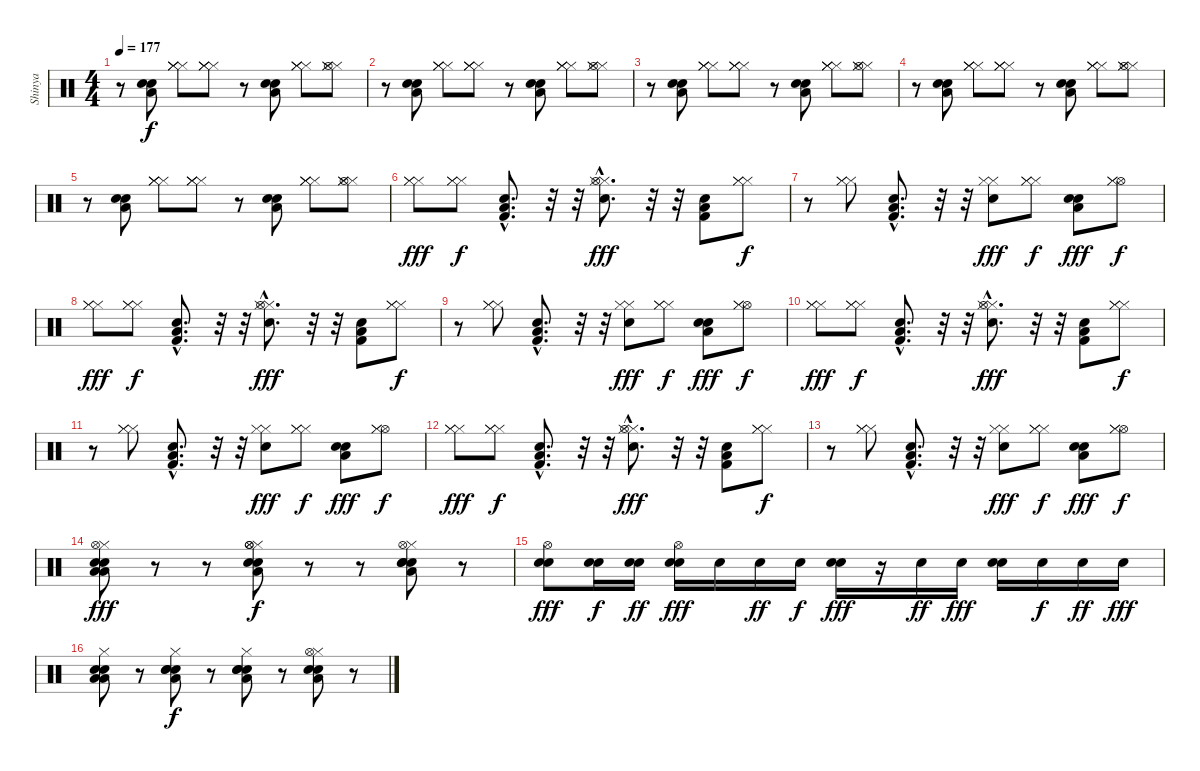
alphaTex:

\track ("Shinya " "Shinya ") {instrument percussion}
\staff {score}
\articulation defaults
\ts (4 4)
\tempo 177
\clef neutral
\ks c
r.8{dy f} ("Electric Snare (hit)" "Low Tom (hit)" "Electric Snare (hit)").8 ("Hi-Hat (closed)" "Hi-Hat (closed)" "Hi-Hat (closed)" "Hi-Hat (closed)").8 ("Hi-Hat (closed)" "Hi-Hat (closed)" "Hi-Hat (closed)" "Hi-Hat (closed)").8 r.8 ("Electric Snare (hit)" "Low Tom (hit)" "Electric Snare (hit)").8 ("Hi-Hat (closed)" "Hi-Hat (closed)" "Hi-Hat (closed)" "Hi-Hat (closed)").8 ("Hi-Hat (closed)" "Hi-Hat (closed)" "Hi-Hat (closed)" "Hi-Hat (open)").8 |
r.8 ("Electric Snare (hit)" "Low Tom (hit)" "Electric Snare (hit)").8 ("Hi-Hat (closed)" "Hi-Hat (closed)" "Hi-Hat (closed)" "Hi-Hat (closed)").8 ("Hi-Hat (closed)" "Hi-Hat (closed)" "Hi-Hat (closed)" "Hi-Hat (closed)").8 r.8 ("Electric Snare (hit)" "Low Tom (hit)" "Electric Snare (hit)").8 ("Hi-Hat (closed)" "Hi-Hat (closed)" "Hi-Hat (closed)" "Hi-Hat (closed)").8 ("Hi-Hat (closed)" "Hi-Hat (closed)" "Hi-Hat (closed)" "Hi-Hat (open)").8 |
r.8 ("Electric Snare (hit)" "Low Tom (hit)" "Electric Snare (hit)").8 ("Hi-Hat (closed)" "Hi-Hat (closed)" "Hi-Hat (closed)" "Hi-Hat (closed)").8 ("Hi-Hat (closed)" "Hi-Hat (closed)" "Hi-Hat (closed)" "Hi-Hat (closed)").8 r.8 ("Electric Snare (hit)" "Low Tom (hit)" "Electric Snare (hit)").8 ("Hi-Hat (closed)" "Hi-Hat (closed)" "Hi-Hat (closed)" "Hi-Hat (closed)").8 ("Hi-Hat (closed)" "Hi-Hat (closed)" "Hi-Hat (closed)" "Hi-Hat (open)").8 |
r.8 ("Electric Snare (hit)" "Low Tom (hit)" "Electric Snare (hit)").8 ("Hi-Hat (closed)" "Hi-Hat (closed)" "Hi-Hat (closed)" "Hi-Hat (closed)").8 ("Hi-Hat (closed)" "Hi-Hat (closed)" "Hi-Hat (closed)" "Hi-Hat (closed)").8 r.8 ("Electric Snare (hit)" "Low Tom (hit)" "Electric Snare (hit)").8 ("Hi-Hat (closed)" "Hi-Hat (closed)" "Hi-Hat (closed)" "Hi-Hat (closed)").8 ("Hi-Hat (closed)" "Hi-Hat (closed)" "Hi-Hat (closed)" "Hi-Hat (open)").8 |
r.8 ("Electric Snare (hit)" "Low Tom (hit)" "Electric Snare (hit)").8 ("Hi-Hat (closed)" "Hi-Hat (closed)" "Hi-Hat (closed)" "Hi-Hat (closed)").8 ("Hi-Hat (closed)" "Hi-Hat (closed)" "Hi-Hat (closed)" "Hi-Hat (closed)").8 r.8 ("Electric Snare (hit)" "Low Tom (hit)" "Electric Snare (hit)").8 ("Hi-Hat (closed)" "Hi-Hat (closed)" "Hi-Hat (closed)" "Hi-Hat (closed)").8 ("Hi-Hat (closed)" "Hi-Hat (closed)" "Hi-Hat (closed)" "Hi-Hat (open)").8 |
("Hi-Hat (closed)" "Hi-Hat (closed)" "Hi-Hat (closed)").8{dy fff} ("Hi-Hat (closed)" "Hi-Hat (closed)" "Hi-Hat (closed)").8{dy f} ("Kick (hit) 2"{hac} "Electric Snare (hit)"{hac} "Low Tom (hit)"{hac}).8{d} r.32 r.32 ("Hi-Hat (closed)" "Electric Snare (hit)"{hac} "Hi-Hat (closed)"{hac} "Hi-Hat (open)"{hac}).8{d dy fff} r.32 r.32 ("Electric Snare (hit)" "Kick (hit) 2" "Low Tom (hit)").8 ("Hi-Hat (closed)" "Hi-Hat (closed)" "Hi-Hat (closed)").8{dy f} |
r.8 ("Hi-Hat (closed)" "Hi-Hat (closed)" "Hi-Hat (closed)").8 ("Electric Snare (hit)"{hac} "Kick (hit) 2"{hac} "Low Tom (hit)"{hac}).8{d} r.32 r.32 ("Hi-Hat (closed)" "Electric Snare (hit)" "Hi-Hat (closed)").8{dy fff} ("Hi-Hat (closed)" "Hi-Hat (closed)" "Hi-Hat (closed)").8{dy f} ("Electric Snare (hit)" "Low Tom (hit)" "Electric Snare (hit)").8{dy fff} ("Hi-Hat (open)" "Hi-Hat (closed)" "Hi-Hat (closed)").8{dy f} |
("Hi-Hat (closed)" "Hi-Hat (closed)" "Hi-Hat (closed)").8{dy fff} ("Hi-Hat (closed)" "Hi-Hat (closed)" "Hi-Hat (closed)").8{dy f} ("Kick (hit) 2"{hac} "Electric Snare (hit)"{hac} "Low Tom (hit)"{hac}).8{d} r.32 r.32 ("Hi-Hat (closed)" "Electric Snare (hit)"{hac} "Hi-Hat (closed)"{hac} "Hi-Hat (open)"{hac}).8{d dy fff} r.32 r.32 ("Electric Snare (hit)" "Kick (hit) 2" "Low Tom (hit)").8 ("Hi-Hat (closed)" "Hi-Hat (closed)" "Hi-Hat (closed)").8{dy f} |
r.8 ("Hi-Hat (closed)" "Hi-Hat (closed)" "Hi-Hat (closed)").8 ("Electric Snare (hit)"{hac} "Kick (hit) 2"{hac} "Low Tom (hit)"{hac}).8{d} r.32 r.32 ("Hi-Hat (closed)" "Electric Snare (hit)" "Hi-Hat (closed)").8{dy fff} ("Hi-Hat (closed)" "Hi-Hat (closed)" "Hi-Hat (closed)").8{dy f} ("Electric Snare (hit)" "Low Tom (hit)" "Electric Snare (hit)").8{dy fff} ("Hi-Hat (open)" "Hi-Hat (closed)" "Hi-Hat (closed)").8{dy f} |
("Hi-Hat (closed)" "Hi-Hat (closed)" "Hi-Hat (closed)").8{dy fff} ("Hi-Hat (closed)" "Hi-Hat (closed)" "Hi-Hat (closed)").8{dy f} ("Kick (hit) 2"{hac} "Electric Snare (hit)"{hac} "Low Tom (hit)"{hac}).8{d} r.32 r.32 ("Hi-Hat (closed)" "Electric Snare (hit)"{hac} "Hi-Hat (closed)"{hac} "Hi-Hat (open)"{hac}).8{d dy fff} r.32 r.32 ("Electric Snare (hit)" "Kick (hit) 2" "Low Tom (hit)").8 ("Hi-Hat (closed)" "Hi-Hat (closed)" "Hi-Hat (closed)").8{dy f} |
r.8 ("Hi-Hat (closed)" "Hi-Hat (closed)" "Hi-Hat (closed)").8 ("Electric Snare (hit)"{hac} "Kick (hit) 2"{hac} "Low Tom (hit)"{hac}).8{d} r.32 r.32 ("Hi-Hat (closed)" "Electric Snare (hit)" "Hi-Hat (closed)").8{dy fff} ("Hi-Hat (closed)" "Hi-Hat (closed)" "Hi-Hat (closed)").8{dy f} ("Electric Snare (hit)" "Low Tom (hit)" "Electric Snare (hit)").8{dy fff} ("Hi-Hat (open)" "Hi-Hat (closed)" "Hi-Hat (closed)").8{dy f} |
("Hi-Hat (closed)" "Hi-Hat (closed)" "Hi-Hat (closed)").8{dy fff} ("Hi-Hat (closed)" "Hi-Hat (closed)" "Hi-Hat (closed)").8{dy f} ("Kick (hit) 2"{hac} "Electric Snare (hit)"{hac} "Low Tom (hit)"{hac}).8{d} r.32 r.32 ("Hi-Hat (closed)" "Electric Snare (hit)"{hac} "Hi-Hat (closed)"{hac} "Hi-Hat (open)"{hac}).8{d dy fff} r.32 r.32 ("Electric Snare (hit)" "Kick (hit) 2" "Low Tom (hit)").8 ("Hi-Hat (closed)" "Hi-Hat (closed)" "Hi-Hat (closed)").8{dy f} |
r.8 ("Hi-Hat (closed)" "Hi-Hat (closed)" "Hi-Hat (closed)").8 ("Electric Snare (hit)"{hac} "Kick (hit) 2"{hac} "Low Tom (hit)"{hac}).8{d} r.32 r.32 ("Hi-Hat (closed)" "Electric Snare (hit)" "Hi-Hat (closed)").8{dy fff} ("Hi-Hat (closed)" "Hi-Hat (closed)" "Hi-Hat (closed)").8{dy f} ("Electric Snare (hit)" "Low Tom (hit)" "Electric Snare (hit)").8{dy fff} ("Hi-Hat (open)" "Hi-Hat (closed)" "Hi-Hat (closed)").8{dy f} |
("Hi-Hat (closed)" "Electric Snare (hit)" "Low Tom (hit)" "Electric Snare (hit)" "Low Tom (hit)" "Hi-Hat (open)").8{dy fff} r.8 r.8 ("Hi-Hat (closed)" "Electric Snare (hit)" "Low Tom (hit)" "Hi-Hat (open)" "Hi-Hat (open)" "Electric Snare (hit)").8{dy f} r.8 r.8 ("Hi-Hat (closed)" "Electric Snare (hit)" "Electric Snare (hit)" "Electric Snare (hit)" "Low Tom (hit)" "Hi-Hat (open)").8 r.8 |
("Electric Snare (hit)" "Electric Snare (hit)" "Hi-Hat (open)").8{dy fff} ("Electric Snare (hit)" "Electric Snare (hit)").16{dy f} ("Electric Snare (hit)" "Electric Snare (hit)").16{dy ff} ("Electric Snare (hit)" "Electric Snare (hit)" "Hi-Hat (open)").16{dy fff} "Electric Snare (hit)".16 "Electric Snare (hit)".16{dy ff} "Electric Snare (hit)".16{dy f} ("Electric Snare (hit)" "Electric Snare (hit)").16{dy fff} r.16 "Electric Snare (hit)".16{dy ff} "Electric Snare (hit)".16{dy fff} ("Electric Snare (hit)" "Electric Snare (hit)").16 "Electric Snare (hit)".16{dy f} "Electric Snare (hit)".16{dy ff} "Electric Snare (hit)".16{dy fff} |
("Hi-Hat (closed)" "Electric Snare (hit)" "Low Tom (hit)" "Electric Snare (hit)" "Low Tom (hit)").8 r.8 ("Hi-Hat (closed)" "Electric Snare (hit)" "Low Tom (hit)" "Electric Snare (hit)" "Snare (hit) 2").8{dy f} r.8 ("Hi-Hat (closed)" "Electric Snare (hit)" "Electric Snare (hit)" "Snare (hit) 2" "Low Tom (hit)").8 r.8 ("Hi-Hat (closed)" "Hi-Hat (open)" "Electric Snare (hit)" "Electric Snare (hit)" "Low Tom (hit)").8 r.8
